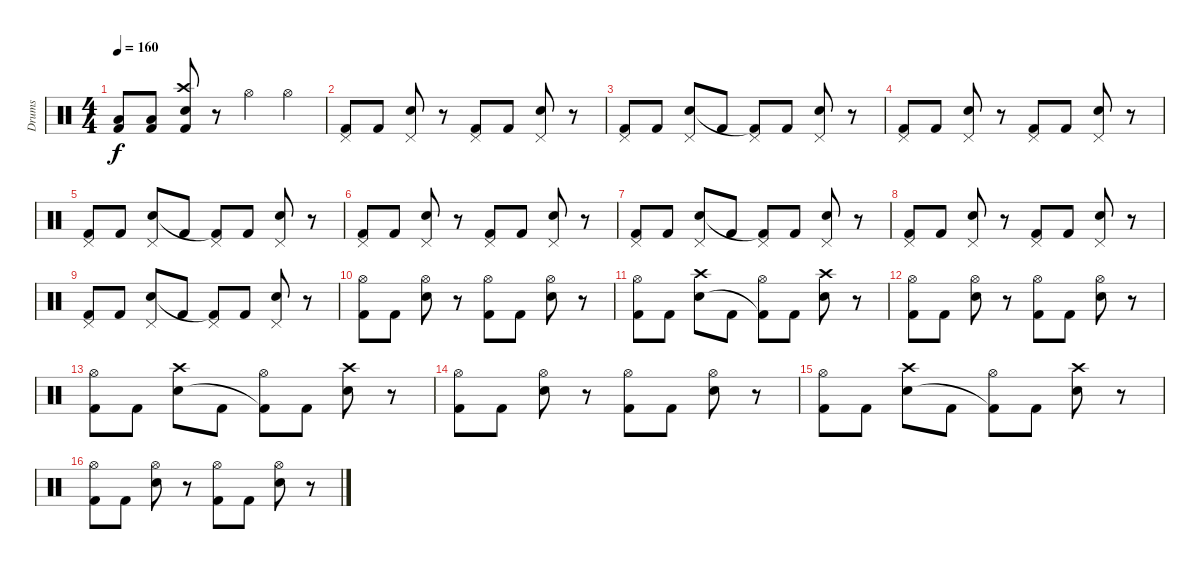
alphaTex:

\track ("Drums" "Drums") {instrument percussion}
\staff {score}
\articulation defaults
\ts (4 4)
\tempo 160
\clef neutral
\ks c
("Low Tom (hit)" "Kick (hit) 2").8{dy f} ("Low Tom (hit)" "Kick (hit) 2").8 ("Crash high (hit)" "Snare (hit) 2" "Kick (hit) 2").8 r.8 "Hi-Hat (open)".4 "Hi-Hat (open)".4 |
("Pedal Hi-Hat (hit)" "Kick (hit) 2").8 "Kick (hit) 2".8 ("Pedal Hi-Hat (hit)" "Snare (hit) 2").8 r.8 ("Pedal Hi-Hat (hit)" "Kick (hit) 2").8 "Kick (hit) 2".8 ("Pedal Hi-Hat (hit)" "Snare (hit) 2").8 r.8 |
("Pedal Hi-Hat (hit)" "Kick (hit) 2").8 "Kick (hit) 2".8 ("Pedal Hi-Hat (hit)" "Snare (hit) 2").8 "Kick (hit) 2".8 ("Pedal Hi-Hat (hit)" "Kick (hit) 2"{t}).8 "Kick (hit) 2".8 ("Pedal Hi-Hat (hit)" "Snare (hit) 2").8 r.8 |
("Pedal Hi-Hat (hit)" "Kick (hit) 2").8 "Kick (hit) 2".8 ("Pedal Hi-Hat (hit)" "Snare (hit) 2").8 r.8 ("Pedal Hi-Hat (hit)" "Kick (hit) 2").8 "Kick (hit) 2".8 ("Pedal Hi-Hat (hit)" "Snare (hit) 2").8 r.8 |
("Pedal Hi-Hat (hit)" "Kick (hit) 2").8 "Kick (hit) 2".8 ("Pedal Hi-Hat (hit)" "Snare (hit) 2").8 "Kick (hit) 2".8 ("Pedal Hi-Hat (hit)" "Kick (hit) 2"{t}).8 "Kick (hit) 2".8 ("Pedal Hi-Hat (hit)" "Snare (hit) 2").8 r.8 |
("Pedal Hi-Hat (hit)" "Kick (hit) 2").8 "Kick (hit) 2".8 ("Pedal Hi-Hat (hit)" "Snare (hit) 2").8 r.8 ("Pedal Hi-Hat (hit)" "Kick (hit) 2").8 "Kick (hit) 2".8 ("Pedal Hi-Hat (hit)" "Snare (hit) 2").8 r.8 |
("Pedal Hi-Hat (hit)" "Kick (hit) 2").8 "Kick (hit) 2".8 ("Pedal Hi-Hat (hit)" "Snare (hit) 2").8 "Kick (hit) 2".8 ("Pedal Hi-Hat (hit)" "Kick (hit) 2"{t}).8 "Kick (hit) 2".8 ("Pedal Hi-Hat (hit)" "Snare (hit) 2").8 r.8 |
("Pedal Hi-Hat (hit)" "Kick (hit) 2").8 "Kick (hit) 2".8 ("Pedal Hi-Hat (hit)" "Snare (hit) 2").8 r.8 ("Pedal Hi-Hat (hit)" "Kick (hit) 2").8 "Kick (hit) 2".8 ("Pedal Hi-Hat (hit)" "Snare (hit) 2").8 r.8 |
("Pedal Hi-Hat (hit)" "Kick (hit) 2").8 "Kick (hit) 2".8 ("Pedal Hi-Hat (hit)" "Snare (hit) 2").8 "Kick (hit) 2".8 ("Pedal Hi-Hat (hit)" "Kick (hit) 2"{t}).8 "Kick (hit) 2".8 ("Pedal Hi-Hat (hit)" "Snare (hit) 2").8 r.8 |
("Hi-Hat (open)" "Kick (hit) 2").8 "Kick (hit) 2".8 ("Hi-Hat (open)" "Snare (hit) 2").8 r.8 ("Hi-Hat (open)" "Kick (hit) 2").8 "Kick (hit) 2".8 ("Hi-Hat (open)" "Snare (hit) 2").8 r.8 |
("Hi-Hat (open)" "Kick (hit) 2").8 "Kick (hit) 2".8 ("Crash high (hit)" "Snare (hit) 2").8 "Kick (hit) 2".8 ("Hi-Hat (open)" "Kick (hit) 2"{t}).8 "Kick (hit) 2".8 ("Crash high (hit)" "Snare (hit) 2").8 r.8 |
("Hi-Hat (open)" "Kick (hit) 2").8 "Kick (hit) 2".8 ("Hi-Hat (open)" "Snare (hit) 2").8 r.8 ("Hi-Hat (open)" "Kick (hit) 2").8 "Kick (hit) 2".8 ("Hi-Hat (open)" "Snare (hit) 2").8 r.8 |
("Hi-Hat (open)" "Kick (hit) 2").8 "Kick (hit) 2".8 ("Crash high (hit)" "Snare (hit) 2").8 "Kick (hit) 2".8 ("Hi-Hat (open)" "Kick (hit) 2"{t}).8 "Kick (hit) 2".8 ("Crash high (hit)" "Snare (hit) 2").8 r.8 |
("Hi-Hat (open)" "Kick (hit) 2").8 "Kick (hit) 2".8 ("Hi-Hat (open)" "Snare (hit) 2").8 r.8 ("Hi-Hat (open)" "Kick (hit) 2").8 "Kick (hit) 2".8 ("Hi-Hat (open)" "Snare (hit) 2").8 r.8 |
("Hi-Hat (open)" "Kick (hit) 2").8 "Kick (hit) 2".8 ("Crash high (hit)" "Snare (hit) 2").8 "Kick (hit) 2".8 ("Hi-Hat (open)" "Kick (hit) 2"{t}).8 "Kick (hit) 2".8 ("Crash high (hit)" "Snare (hit) 2").8 r.8 |
("Hi-Hat (open)" "Kick (hit) 2").8 "Kick (hit) 2".8 ("Hi-Hat (open)" "Snare (hit) 2").8 r.8 ("Hi-Hat (open)" "Kick (hit) 2").8 "Kick (hit) 2".8 ("Hi-Hat (open)" "Snare (hit) 2").8 r.8
